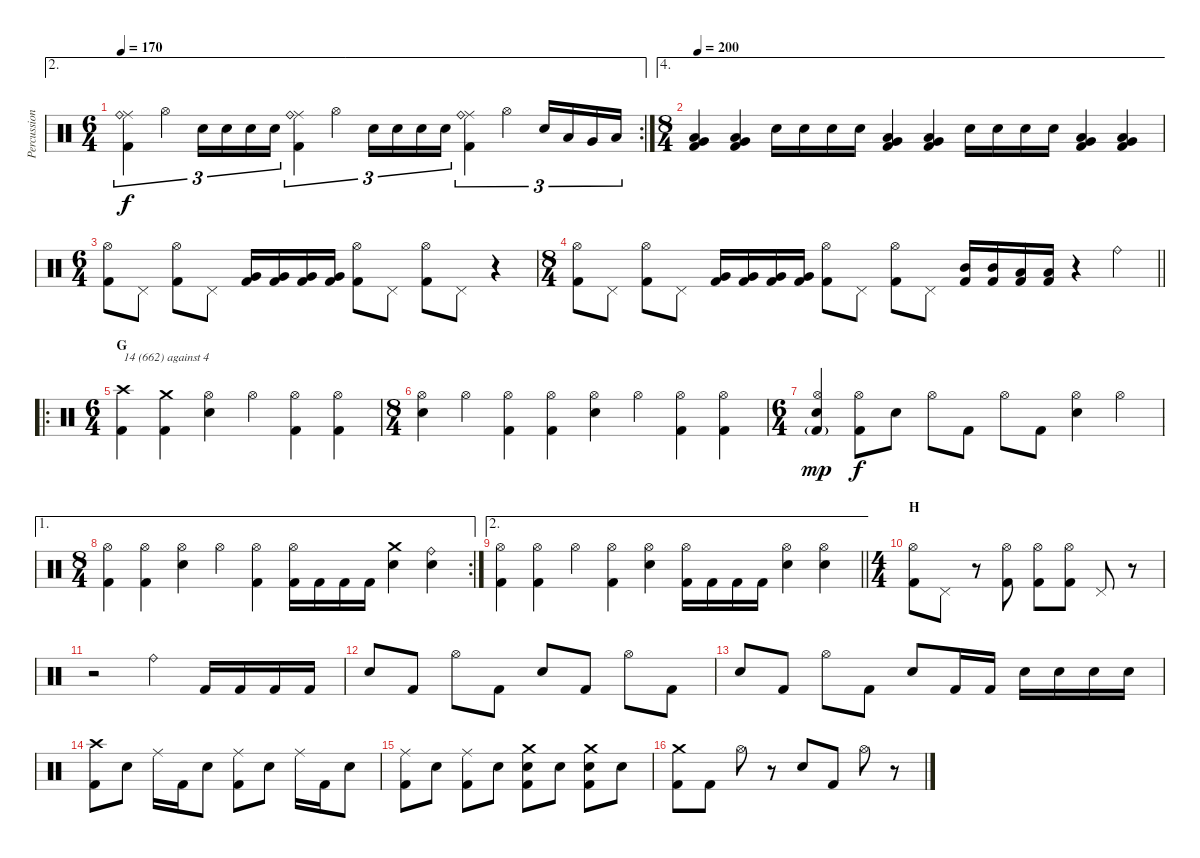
\track ("Percussion" "Percussion") {instrument percussion}
\staff {score}
\articulation defaults
\ae 2
\rc 2
\ts (6 4)
\tempo 170
\clef neutral
\ks c
("Ride (middle)" "Ride (bell)" "Kick (hit) 2").4{tu (3 2) dy f} "Hi-Hat (open)".4{tu (3 2)} "Electric Snare (hit)".16{tu (3 2)} "Electric Snare (hit)".16{tu (3 2)} "Electric Snare (hit)".16{tu (3 2)} "Electric Snare (hit)".16{tu (3 2)} ("Ride (middle)" "Ride (bell)" "Kick (hit) 2").4{tu (3 2)} "Hi-Hat (open)".4{tu (3 2)} "Electric Snare (hit)".16{tu (3 2)} "Electric Snare (hit)".16{tu (3 2)} "Electric Snare (hit)".16{tu (3 2)} "Electric Snare (hit)".16{tu (3 2)} ("Ride (middle)" "Ride (bell)" "Kick (hit) 2").4{tu (3 2)} "Hi-Hat (open)".4{tu (3 2)} "Electric Snare (hit)".16{tu (3 2)} "Low Tom (hit)".16{tu (3 2)} "Very Low Tom (hit)".16{tu (3 2)} "Low Floor Tom (hit)".16{tu (3 2)} |
\ae 4
\ts (8 4)
\tempo 200
("Low Floor Tom (hit)" "Very Low Tom (hit)" "Kick (hit) 2").4 ("Low Floor Tom (hit)" "Very Low Tom (hit)" "Kick (hit) 2").4 "Electric Snare (hit)".16 "Electric Snare (hit)".16 "Electric Snare (hit)".16 "Electric Snare (hit)".16 ("Low Floor Tom (hit)" "Very Low Tom (hit)" "Kick (hit) 2").4 ("Low Floor Tom (hit)" "Very Low Tom (hit)" "Kick (hit) 2").4 "Electric Snare (hit)".16 "Electric Snare (hit)".16 "Electric Snare (hit)".16 "Electric Snare (hit)".16 ("Low Floor Tom (hit)" "Very Low Tom (hit)" "Kick (hit) 2").4 ("Low Floor Tom (hit)" "Very Low Tom (hit)" "Kick (hit) 2").4 |
\ts (6 4)
("Hi-Hat (open)" "Kick (hit) 2").8 "Pedal Hi-Hat (hit)".8 ("Hi-Hat (open)" "Kick (hit) 2").8 "Pedal Hi-Hat (hit)".8 ("Very Low Tom (hit)" "Kick (hit) 2").16 ("Very Low Tom (hit)" "Kick (hit) 2").16 ("Very Low Tom (hit)" "Kick (hit) 2").16 ("Very Low Tom (hit)" "Kick (hit) 2").16 ("Hi-Hat (open)" "Kick (hit) 2").8 "Pedal Hi-Hat (hit)".8 ("Hi-Hat (open)" "Kick (hit) 2").8 "Pedal Hi-Hat (hit)".8 r.4 |
\ts (8 4)
\barLineRight lightlight
("Hi-Hat (open)" "Kick (hit) 2").8 "Pedal Hi-Hat (hit)".8 ("Hi-Hat (open)" "Kick (hit) 2").8 "Pedal Hi-Hat (hit)".8 ("Very Low Tom (hit)" "Kick (hit) 2").16 ("Very Low Tom (hit)" "Kick (hit) 2").16 ("Very Low Tom (hit)" "Kick (hit) 2").16 ("Very Low Tom (hit)" "Kick (hit) 2").16 ("Hi-Hat (open)" "Kick (hit) 2").8 "Pedal Hi-Hat (hit)".8 ("Hi-Hat (open)" "Kick (hit) 2").8 "Pedal Hi-Hat (hit)".8 ("Mid Tom (hit)" "Kick (hit) 2").16 ("Mid Tom (hit)" "Kick (hit) 2").16 ("Low Tom (hit)" "Kick (hit) 2").16 ("Low Tom (hit)" "Kick (hit) 2").16 r.4 "Ride (bell)".4 |
\ro
\ts (6 4)
\section ("" "G")
("Crash high (hit)" "Kick (hit) 2").4{txt "14 (662) against 4"} ("Crash medium (hit)" "Kick (hit) 2").4 ("Hi-Hat (open)" "Electric Snare (hit)").4 "Hi-Hat (open)".4 ("Hi-Hat (open)" "Kick (hit) 2").4 ("Hi-Hat (open)" "Kick (hit) 2").4 |
\ts (8 4)
("Hi-Hat (open)" "Electric Snare (hit)").4 "Hi-Hat (open)".4 ("Hi-Hat (open)" "Kick (hit) 2").4 ("Hi-Hat (open)" "Kick (hit) 2").4 ("Hi-Hat (open)" "Electric Snare (hit)").4 "Hi-Hat (open)".4 ("Hi-Hat (open)" "Kick (hit) 2").4 ("Hi-Hat (open)" "Kick (hit) 2").4 |
\ts (6 4)
("Hi-Hat (open)" "Electric Snare (hit)" "Kick (hit) 2"{g}).4{dy mp} ("Hi-Hat (open)" "Kick (hit) 2").8{dy f} "Electric Snare (hit)".8 "Hi-Hat (open)".8 "Kick (hit) 2".8 "Hi-Hat (open)".8 "Kick (hit) 2".8 ("Hi-Hat (open)" "Electric Snare (hit)").4 "Hi-Hat (open)".4 |
\ae 1
\rc 2
\ts (8 4)
("Hi-Hat (open)" "Kick (hit) 2").4 ("Hi-Hat (open)" "Kick (hit) 2").4 ("Hi-Hat (open)" "Electric Snare (hit)").4 "Hi-Hat (open)".4 ("Hi-Hat (open)" "Kick (hit) 2").4 ("Hi-Hat (open)" "Kick (hit) 2").16 "Kick (hit) 2".16 "Kick (hit) 2".16 "Kick (hit) 2".16 ("Crash medium (hit)" "Electric Snare (hit)").4 ("Ride (bell)" "Electric Snare (hit)").4 |
\ae 2
\barLineRight lightlight
("Hi-Hat (open)" "Kick (hit) 2").4 ("Hi-Hat (open)" "Kick (hit) 2").4 "Hi-Hat (open)".4 ("Hi-Hat (open)" "Kick (hit) 2").4 ("Hi-Hat (open)" "Electric Snare (hit)").4 ("Hi-Hat (open)" "Kick (hit) 2").16 "Kick (hit) 2".16 "Kick (hit) 2".16 "Kick (hit) 2".16 ("Hi-Hat (open)" "Electric Snare (hit)").4 ("Hi-Hat (open)" "Electric Snare (hit)").4 |
\ts (4 4)
\section ("" "H")
("Hi-Hat (open)" "Kick (hit) 2").8 "Pedal Hi-Hat (hit)".8 r.8 ("Hi-Hat (open)" "Kick (hit) 2").8 ("Hi-Hat (open)" "Kick (hit) 2").8 ("Hi-Hat (open)" "Kick (hit) 2").8 "Pedal Hi-Hat (hit)".8 r.8 |
r.2 "Ride (bell)".4 "Kick (hit) 2".16 "Kick (hit) 2".16 "Kick (hit) 2".16 "Kick (hit) 2".16 |
"Electric Snare (hit)".8 "Kick (hit) 2".8 "Hi-Hat (open)".8 "Kick (hit) 2".8 "Electric Snare (hit)".8 "Kick (hit) 2".8 "Hi-Hat (open)".8 "Kick (hit) 2".8 |
"Electric Snare (hit)".8 "Kick (hit) 2".8 "Hi-Hat (open)".8 "Kick (hit) 2".8 "Electric Snare (hit)".8 "Kick (hit) 2".16 "Kick (hit) 2".16 "Electric Snare (hit)".16 "Electric Snare (hit)".16 "Electric Snare (hit)".16 "Electric Snare (hit)".16 |
("Crash high (hit)" "Kick (hit) 2").8 "Electric Snare (hit)".8 "Ride (middle)".16 "Kick (hit) 2".16 "Electric Snare (hit)".8 ("Ride (middle)" "Kick (hit) 2").8 "Electric Snare (hit)".8 "Ride (middle)".16 "Kick (hit) 2".16 "Electric Snare (hit)".8 |
("Ride (middle)" "Kick (hit) 2").8 "Electric Snare (hit)".8 ("Ride (middle)" "Kick (hit) 2").8 "Electric Snare (hit)".8 ("Crash medium (hit)" "Electric Snare (hit)" "Kick (hit) 2").8 "Electric Snare (hit)".8 ("Crash medium (hit)" "Electric Snare (hit)" "Kick (hit) 2").8 "Electric Snare (hit)".8 |
("Crash medium (hit)" "Kick (hit) 2").8 "Kick (hit) 2".8 "Hi-Hat (open)".8 r.8 "Electric Snare (hit)".8 "Kick (hit) 2".8 "Hi-Hat (open)".8 r.8
